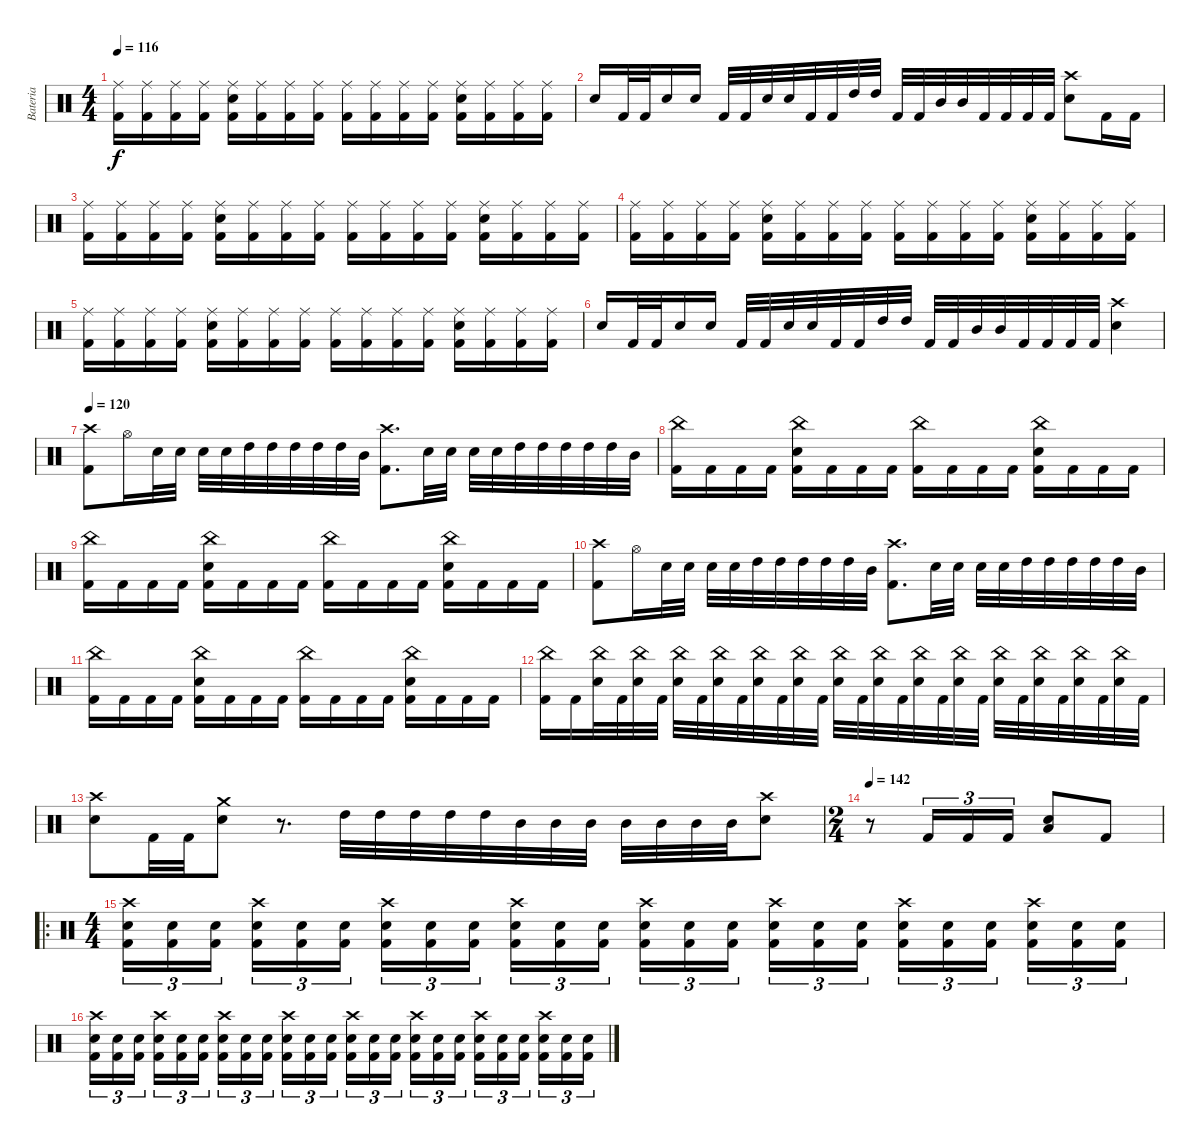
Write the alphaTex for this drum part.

\track ("Bateria" "Bateria") {instrument percussion}
\staff {score}
\articulation defaults
\ts (4 4)
\tempo 116
\clef neutral
\ks c
("Ride (middle)" "Kick (hit) 2").16{dy f} ("Ride (middle)" "Kick (hit) 2").16 ("Ride (middle)" "Kick (hit) 2").16 ("Ride (middle)" "Kick (hit) 2").16 ("Ride (middle)" "Electric Snare (hit)" "Kick (hit) 2").16 ("Ride (middle)" "Kick (hit) 2").16 ("Ride (middle)" "Kick (hit) 2").16 ("Ride (middle)" "Kick (hit) 2").16 ("Ride (middle)" "Kick (hit) 2").16 ("Ride (middle)" "Kick (hit) 2").16 ("Ride (middle)" "Kick (hit) 2").16 ("Ride (middle)" "Kick (hit) 2").16 ("Ride (middle)" "Electric Snare (hit)" "Kick (hit) 2").16 ("Ride (middle)" "Kick (hit) 2").16 ("Ride (middle)" "Kick (hit) 2").16 ("Ride (middle)" "Kick (hit) 2").16 |
"Electric Snare (hit)".16 "Kick (hit) 2".32 "Kick (hit) 2".32 "Electric Snare (hit)".16 "Electric Snare (hit)".16 "Kick (hit) 2".32 "Kick (hit) 2".32 "Electric Snare (hit)".32 "Electric Snare (hit)".32 "Kick (hit) 2".32 "Kick (hit) 2".32 "High Tom (hit)".32 "High Tom (hit)".32 "Kick (hit) 2".32 "Kick (hit) 2".32 "Mid Tom (hit)".32 "Mid Tom (hit)".32 "Kick (hit) 2".32 "Kick (hit) 2".32 "Kick (hit) 2".32 "Kick (hit) 2".32 ("Crash high (hit)" "Electric Snare (hit)").8 "Kick (hit) 2".16 "Kick (hit) 2".16 |
("Ride (middle)" "Kick (hit) 2").16 ("Ride (middle)" "Kick (hit) 2").16 ("Ride (middle)" "Kick (hit) 2").16 ("Ride (middle)" "Kick (hit) 2").16 ("Ride (middle)" "Electric Snare (hit)" "Kick (hit) 2").16 ("Ride (middle)" "Kick (hit) 2").16 ("Ride (middle)" "Kick (hit) 2").16 ("Ride (middle)" "Kick (hit) 2").16 ("Ride (middle)" "Kick (hit) 2").16 ("Ride (middle)" "Kick (hit) 2").16 ("Ride (middle)" "Kick (hit) 2").16 ("Ride (middle)" "Kick (hit) 2").16 ("Ride (middle)" "Electric Snare (hit)" "Kick (hit) 2").16 ("Ride (middle)" "Kick (hit) 2").16 ("Ride (middle)" "Kick (hit) 2").16 ("Ride (middle)" "Kick (hit) 2").16 |
("Ride (middle)" "Kick (hit) 2").16 ("Ride (middle)" "Kick (hit) 2").16 ("Ride (middle)" "Kick (hit) 2").16 ("Ride (middle)" "Kick (hit) 2").16 ("Ride (middle)" "Electric Snare (hit)" "Kick (hit) 2").16 ("Ride (middle)" "Kick (hit) 2").16 ("Ride (middle)" "Kick (hit) 2").16 ("Ride (middle)" "Kick (hit) 2").16 ("Ride (middle)" "Kick (hit) 2").16 ("Ride (middle)" "Kick (hit) 2").16 ("Ride (middle)" "Kick (hit) 2").16 ("Ride (middle)" "Kick (hit) 2").16 ("Ride (middle)" "Electric Snare (hit)" "Kick (hit) 2").16 ("Ride (middle)" "Kick (hit) 2").16 ("Ride (middle)" "Kick (hit) 2").16 ("Ride (middle)" "Kick (hit) 2").16 |
("Ride (middle)" "Kick (hit) 2").16 ("Ride (middle)" "Kick (hit) 2").16 ("Ride (middle)" "Kick (hit) 2").16 ("Ride (middle)" "Kick (hit) 2").16 ("Ride (middle)" "Electric Snare (hit)" "Kick (hit) 2").16 ("Ride (middle)" "Kick (hit) 2").16 ("Ride (middle)" "Kick (hit) 2").16 ("Ride (middle)" "Kick (hit) 2").16 ("Ride (middle)" "Kick (hit) 2").16 ("Ride (middle)" "Kick (hit) 2").16 ("Ride (middle)" "Kick (hit) 2").16 ("Ride (middle)" "Kick (hit) 2").16 ("Ride (middle)" "Electric Snare (hit)" "Kick (hit) 2").16 ("Ride (middle)" "Kick (hit) 2").16 ("Ride (middle)" "Kick (hit) 2").16 ("Ride (middle)" "Kick (hit) 2").16 |
"Electric Snare (hit)".16 "Kick (hit) 2".32 "Kick (hit) 2".32 "Electric Snare (hit)".16 "Electric Snare (hit)".16 "Kick (hit) 2".32 "Kick (hit) 2".32 "Electric Snare (hit)".32 "Electric Snare (hit)".32 "Kick (hit) 2".32 "Kick (hit) 2".32 "High Tom (hit)".32 "High Tom (hit)".32 "Kick (hit) 2".32 "Kick (hit) 2".32 "Mid Tom (hit)".32 "Mid Tom (hit)".32 "Kick (hit) 2".32 "Kick (hit) 2".32 "Kick (hit) 2".32 "Kick (hit) 2".32 ("Crash high (hit)" "Electric Snare (hit)").4 |
\tempo 120
("Crash high (hit)" "Kick (hit) 2").8 "Hi-Hat (open)".16 "Electric Snare (hit)".32 "Electric Snare (hit)".32 "Electric Snare (hit)".32 "Electric Snare (hit)".32 "High Tom (hit)".32 "High Tom (hit)".32 "High Tom (hit)".32 "High Tom (hit)".32 "High Tom (hit)".32 "Mid Tom (hit)".32 ("Crash high (hit)" "Kick (hit) 2").8{d} "Electric Snare (hit)".32 "Electric Snare (hit)".32 "Electric Snare (hit)".32 "Electric Snare (hit)".32 "High Tom (hit)".32 "High Tom (hit)".32 "High Tom (hit)".32 "High Tom (hit)".32 "High Tom (hit)".32 "Mid Tom (hit)".32 |
("China (hit)" "Kick (hit) 2").16 "Kick (hit) 2".16 "Kick (hit) 2".16 "Kick (hit) 2".16 ("China (hit)" "Electric Snare (hit)" "Kick (hit) 2").16 "Kick (hit) 2".16 "Kick (hit) 2".16 "Kick (hit) 2".16 ("China (hit)" "Kick (hit) 2").16 "Kick (hit) 2".16 "Kick (hit) 2".16 "Kick (hit) 2".16 ("China (hit)" "Electric Snare (hit)" "Kick (hit) 2").16 "Kick (hit) 2".16 "Kick (hit) 2".16 "Kick (hit) 2".16 |
("China (hit)" "Kick (hit) 2").16 "Kick (hit) 2".16 "Kick (hit) 2".16 "Kick (hit) 2".16 ("China (hit)" "Electric Snare (hit)" "Kick (hit) 2").16 "Kick (hit) 2".16 "Kick (hit) 2".16 "Kick (hit) 2".16 ("China (hit)" "Kick (hit) 2").16 "Kick (hit) 2".16 "Kick (hit) 2".16 "Kick (hit) 2".16 ("China (hit)" "Electric Snare (hit)" "Kick (hit) 2").16 "Kick (hit) 2".16 "Kick (hit) 2".16 "Kick (hit) 2".16 |
("Crash high (hit)" "Kick (hit) 2").8 "Hi-Hat (open)".16 "Electric Snare (hit)".32 "Electric Snare (hit)".32 "Electric Snare (hit)".32 "Electric Snare (hit)".32 "High Tom (hit)".32 "High Tom (hit)".32 "High Tom (hit)".32 "High Tom (hit)".32 "High Tom (hit)".32 "Mid Tom (hit)".32 ("Crash high (hit)" "Kick (hit) 2").8{d} "Electric Snare (hit)".32 "Electric Snare (hit)".32 "Electric Snare (hit)".32 "Electric Snare (hit)".32 "High Tom (hit)".32 "High Tom (hit)".32 "High Tom (hit)".32 "High Tom (hit)".32 "High Tom (hit)".32 "Mid Tom (hit)".32 |
("China (hit)" "Kick (hit) 2").16 "Kick (hit) 2".16 "Kick (hit) 2".16 "Kick (hit) 2".16 ("China (hit)" "Electric Snare (hit)" "Kick (hit) 2").16 "Kick (hit) 2".16 "Kick (hit) 2".16 "Kick (hit) 2".16 ("China (hit)" "Kick (hit) 2").16 "Kick (hit) 2".16 "Kick (hit) 2".16 "Kick (hit) 2".16 ("China (hit)" "Electric Snare (hit)" "Kick (hit) 2").16 "Kick (hit) 2".16 "Kick (hit) 2".16 "Kick (hit) 2".16 |
("China (hit)" "Kick (hit) 2").16 "Kick (hit) 2".16 ("China (hit)" "Electric Snare (hit)").32 "Kick (hit) 2".32 ("China (hit)" "Electric Snare (hit)").32 "Kick (hit) 2".32 ("China (hit)" "Electric Snare (hit)").32 "Kick (hit) 2".32 ("China (hit)" "Electric Snare (hit)").32 "Kick (hit) 2".32 ("China (hit)" "Electric Snare (hit)").32 "Kick (hit) 2".32 ("China (hit)" "Electric Snare (hit)").32 "Kick (hit) 2".32 ("China (hit)" "Electric Snare (hit)").32 "Kick (hit) 2".32 ("China (hit)" "Electric Snare (hit)").32 "Kick (hit) 2".32 ("China (hit)" "Electric Snare (hit)").32 "Kick (hit) 2".32 ("China (hit)" "Electric Snare (hit)").32 "Kick (hit) 2".32 ("China (hit)" "Electric Snare (hit)").32 "Kick (hit) 2".32 ("China (hit)" "Electric Snare (hit)").32 "Kick (hit) 2".32 ("China (hit)" "Electric Snare (hit)").32 "Kick (hit) 2".32 ("China (hit)" "Electric Snare (hit)").32 "Kick (hit) 2".32 |
("Crash high (hit)" "Electric Snare (hit)").8 "Kick (hit) 2".32 "Kick (hit) 2".32 ("Crash medium (hit)" "Electric Snare (hit)").8 r.8{d} "High Tom (hit)".32 "High Tom (hit)".32 "High Tom (hit)".32 "High Tom (hit)".32 "High Tom (hit)".32 "Mid Tom (hit)".32 "Mid Tom (hit)".32 "Mid Tom (hit)".32 "Mid Tom (hit)".32 "Mid Tom (hit)".32 "Mid Tom (hit)".32 "Mid Tom (hit)".32 ("Crash high (hit)" "Electric Snare (hit)").8 |
\ts (2 4)
\tempo 142
r.8 "Kick (hit) 2".16{tu (3 2)} "Kick (hit) 2".16{tu (3 2)} "Kick (hit) 2".16{tu (3 2)} ("Low Tom (hit)" "Electric Snare (hit)").8 "Kick (hit) 2".8 |
\ro
\ts (4 4)
("Crash high (hit)" "Electric Snare (hit)" "Kick (hit) 2").16{tu (3 2)} ("Electric Snare (hit)" "Kick (hit) 2").16{tu (3 2)} ("Electric Snare (hit)" "Kick (hit) 2").16{tu (3 2) beam splitsecondary} ("Crash high (hit)" "Electric Snare (hit)" "Kick (hit) 2").16{tu (3 2)} ("Electric Snare (hit)" "Kick (hit) 2").16{tu (3 2)} ("Electric Snare (hit)" "Kick (hit) 2").16{tu (3 2)} ("Crash high (hit)" "Electric Snare (hit)" "Kick (hit) 2").16{tu (3 2)} ("Electric Snare (hit)" "Kick (hit) 2").16{tu (3 2)} ("Electric Snare (hit)" "Kick (hit) 2").16{tu (3 2) beam splitsecondary} ("Crash high (hit)" "Electric Snare (hit)" "Kick (hit) 2").16{tu (3 2)} ("Electric Snare (hit)" "Kick (hit) 2").16{tu (3 2)} ("Electric Snare (hit)" "Kick (hit) 2").16{tu (3 2)} ("Crash high (hit)" "Electric Snare (hit)" "Kick (hit) 2").16{tu (3 2)} ("Electric Snare (hit)" "Kick (hit) 2").16{tu (3 2)} ("Electric Snare (hit)" "Kick (hit) 2").16{tu (3 2) beam splitsecondary} ("Crash high (hit)" "Electric Snare (hit)" "Kick (hit) 2").16{tu (3 2)} ("Electric Snare (hit)" "Kick (hit) 2").16{tu (3 2)} ("Electric Snare (hit)" "Kick (hit) 2").16{tu (3 2)} ("Crash high (hit)" "Electric Snare (hit)" "Kick (hit) 2").16{tu (3 2)} ("Electric Snare (hit)" "Kick (hit) 2").16{tu (3 2)} ("Electric Snare (hit)" "Kick (hit) 2").16{tu (3 2) beam splitsecondary} ("Crash high (hit)" "Electric Snare (hit)" "Kick (hit) 2").16{tu (3 2)} ("Electric Snare (hit)" "Kick (hit) 2").16{tu (3 2)} ("Electric Snare (hit)" "Kick (hit) 2").16{tu (3 2)} |
("Crash high (hit)" "Electric Snare (hit)" "Kick (hit) 2").16{tu (3 2)} ("Electric Snare (hit)" "Kick (hit) 2").16{tu (3 2)} ("Electric Snare (hit)" "Kick (hit) 2").16{tu (3 2) beam splitsecondary} ("Crash high (hit)" "Electric Snare (hit)" "Kick (hit) 2").16{tu (3 2)} ("Electric Snare (hit)" "Kick (hit) 2").16{tu (3 2)} ("Electric Snare (hit)" "Kick (hit) 2").16{tu (3 2)} ("Crash high (hit)" "Electric Snare (hit)" "Kick (hit) 2").16{tu (3 2)} ("Electric Snare (hit)" "Kick (hit) 2").16{tu (3 2)} ("Electric Snare (hit)" "Kick (hit) 2").16{tu (3 2) beam splitsecondary} ("Crash high (hit)" "Electric Snare (hit)" "Kick (hit) 2").16{tu (3 2)} ("Electric Snare (hit)" "Kick (hit) 2").16{tu (3 2)} ("Electric Snare (hit)" "Kick (hit) 2").16{tu (3 2)} ("Crash high (hit)" "Electric Snare (hit)" "Kick (hit) 2").16{tu (3 2)} ("Electric Snare (hit)" "Kick (hit) 2").16{tu (3 2)} ("Electric Snare (hit)" "Kick (hit) 2").16{tu (3 2) beam splitsecondary} ("Crash high (hit)" "Electric Snare (hit)" "Kick (hit) 2").16{tu (3 2)} ("Electric Snare (hit)" "Kick (hit) 2").16{tu (3 2)} ("Electric Snare (hit)" "Kick (hit) 2").16{tu (3 2)} ("Crash high (hit)" "Electric Snare (hit)" "Kick (hit) 2").16{tu (3 2)} ("Electric Snare (hit)" "Kick (hit) 2").16{tu (3 2)} ("Electric Snare (hit)" "Kick (hit) 2").16{tu (3 2) beam splitsecondary} ("Crash high (hit)" "Electric Snare (hit)" "Kick (hit) 2").16{tu (3 2)} ("Electric Snare (hit)" "Kick (hit) 2").16{tu (3 2)} ("Electric Snare (hit)" "Kick (hit) 2").16{tu (3 2)}
